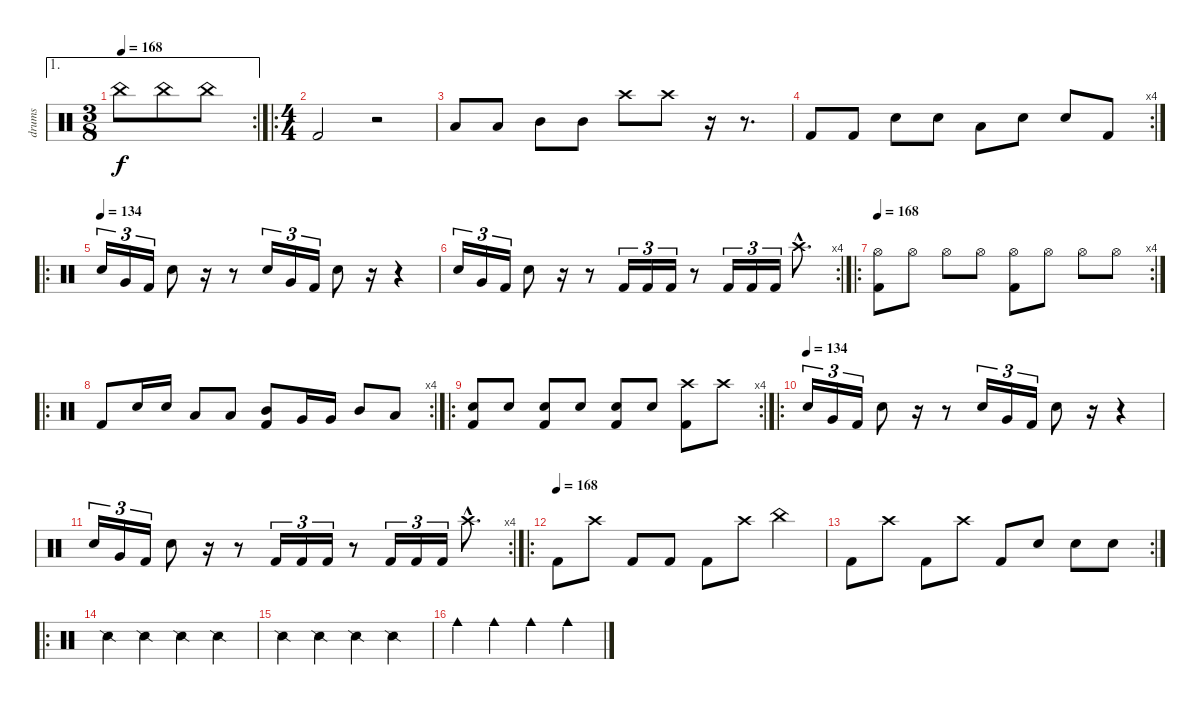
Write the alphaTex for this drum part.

\track ("drums" "drums") {instrument percussion}
\staff {score}
\articulation defaults
\ae 1
\rc 2
\ts (3 8)
\tempo 168
\clef neutral
\ks c "China (hit)".8{dy f} "China (hit)".8 "China (hit)".8
|
\ro
\ts (4 4)
"Kick (hit) 2".2 r.2 |
"Low Tom (hit)".8 "Low Tom (hit)".8 "Mid Tom (hit)".8 "Mid Tom (hit)".8 "Crash high (hit)".8 "Crash high (hit)".8 r.16 r.8{d} |
\rc 4 "Kick (hit) 2".8 "Kick (hit) 2".8 "Snare (hit) 2".8 "Snare (hit) 2".8 "Low Tom (hit)".8 "Snare (hit) 2".8 "Snare (hit) 2".8 "Kick (hit) 2".8
|
\ro
\tempo (134)
"Snare (hit) 2".16{tu (3 2)} "Very Low Tom (hit)".16{tu (3 2)} "Kick (hit) 2".16{tu (3 2)} "Snare (hit) 2".8 r.16 r.8 "Snare (hit) 2".16{tu (3 2)} "Very Low Tom (hit)".16{tu (3 2)} "Kick (hit) 2".16{tu (3 2)} "Snare (hit) 2".8 r.16 r.4 |
\rc 4 "Snare (hit) 2".16{tu (3 2)} "Very Low Tom (hit)".16{tu (3 2)} "Kick (hit) 2".16{tu (3 2)} "Snare (hit) 2".8
r.16 r.8 "Kick (hit) 2".16{tu (3 2)} "Kick (hit) 2".16{tu (3 2)} "Kick (hit) 2".16{tu (3 2)} r.8 "Kick (hit) 2".16{tu (3 2)} "Kick (hit) 2".16{tu (3 2)} "Kick (hit) 2".16{tu (3 2)} "Crash high (hit)"{hac}.8{d} |
\ro
\rc 4
\tempo 168
("Hi-Hat (open)" "Kick (hit) 2").8 "Hi-Hat (open)".8 "Hi-Hat (open)".8 "Hi-Hat (open)".8 ("Hi-Hat (open)" "Kick (hit) 2").8 "Hi-Hat (open)".8 "Hi-Hat (open)".8 "Hi-Hat (open)".8 |
\ro
\rc 4 "Kick (hit) 2".8 "Snare (hit) 2".16 "Snare (hit) 2".16 "Low Tom (hit)".8 "Low Tom (hit)".8
("Mid Tom (hit)" "Kick (hit) 2").8 "Very Low Tom (hit)".16 "Very Low Tom (hit)".16 "Mid Tom (hit)".8 "Low Tom (hit)".8 |
\ro
\rc 4
("Snare (hit) 2" "Kick (hit) 2").8 "Snare (hit) 2".8 ("Snare (hit) 2" "Kick (hit) 2").8 "Snare (hit) 2".8 ("Snare (hit) 2" "Kick (hit) 2").8 "Snare (hit) 2".8 ("Crash high (hit)" "Kick (hit) 2").8 "Crash high (hit)".8 |
\ro
\tempo (134)
"Snare (hit) 2".16{tu (3 2)} "Very Low Tom (hit)".16{tu (3 2)} "Kick (hit) 2".16{tu (3 2)} "Snare (hit) 2".8 r.16 r.8 "Snare (hit) 2".16{tu (3 2)} "Very Low Tom (hit)".16{tu (3 2)} "Kick (hit) 2".16{tu (3 2)} "Snare (hit) 2".8 r.16 r.4 |
\rc 4 "Snare (hit) 2".16{tu (3 2)} "Very Low Tom (hit)".16{tu (3 2)} "Kick (hit) 2".16{tu (3 2)} "Snare (hit) 2".8
r.16 r.8 "Kick (hit) 2".16{tu (3 2)} "Kick (hit) 2".16{tu (3 2)} "Kick (hit) 2".16{tu (3 2)} r.8 "Kick (hit) 2".16{tu (3 2)} "Kick (hit) 2".16{tu (3 2)} "Kick (hit) 2".16{tu (3 2)} "Crash high (hit)"{hac}.8{d} |
\ro
\tempo (168)
"Kick (hit) 2".8 "Crash high (hit)".8 "Kick (hit) 2".8 "Kick (hit) 2".8 "Kick (hit) 2".8 "Crash high (hit)".8 "China (hit)".4 |
\rc 2 "Kick (hit) 2".8 "Crash high (hit)".8 "Kick (hit) 2".8 "Crash high (hit)".8 "Kick (hit) 2".8 "Snare (hit) 2".8 "Snare (hit) 2".8 "Snare (hit) 2".8
|
\ro "Snare (side stick) 2".4 "Snare (side stick) 2".4 "Snare (side stick) 2".4 "Snare (side stick) 2".4
|
"Snare (side stick) 2".4 "Snare (side stick) 2".4 "Snare (side stick) 2".4 "Snare (side stick) 2".4 |
"Cowbell medium (hit)".4 "Cowbell medium (hit)".4 "Cowbell medium (hit)".4 "Cowbell medium (hit)".4
